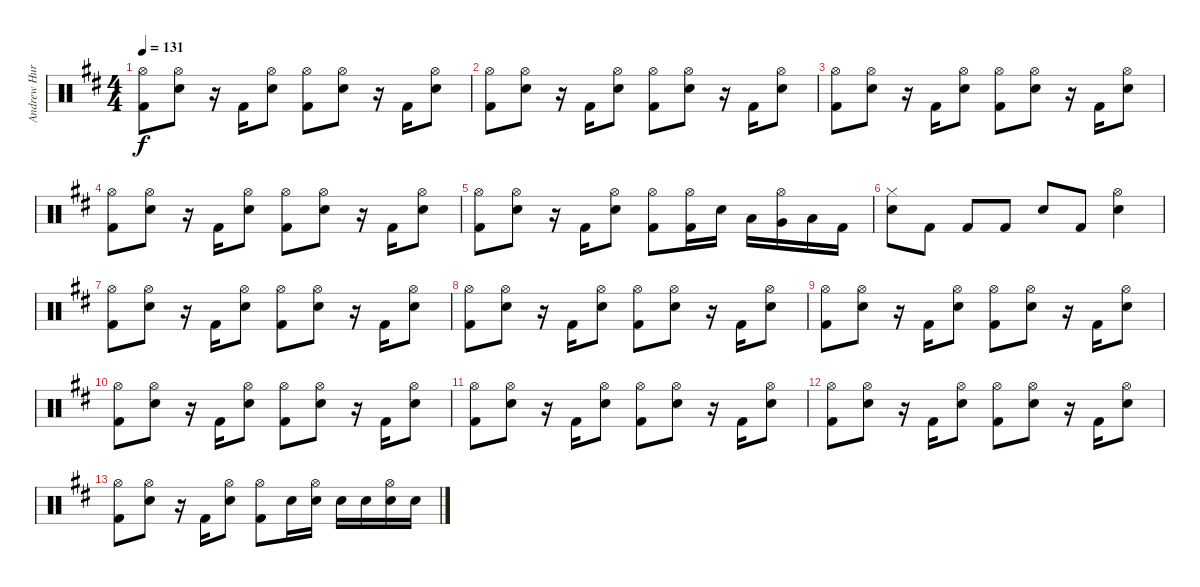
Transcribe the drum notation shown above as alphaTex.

\track ("Andrew Hurley" "Andrew Hur") {instrument percussion}
\staff {score}
\articulation defaults
\ts (4 4)
\tempo 131
\clef neutral
\ks d
("Hi-Hat (open)" "Kick (hit) 2").8{dy f} ("Hi-Hat (open)" "Electric Snare (hit)").8 r.16 "Kick (hit) 2".16 ("Hi-Hat (open)" "Electric Snare (hit)").8 ("Hi-Hat (open)" "Kick (hit) 2").8 ("Hi-Hat (open)" "Electric Snare (hit)").8 r.16 "Kick (hit) 2".16 ("Hi-Hat (open)" "Electric Snare (hit)").8 |
("Hi-Hat (open)" "Kick (hit) 2").8 ("Hi-Hat (open)" "Electric Snare (hit)").8 r.16 "Kick (hit) 2".16 ("Hi-Hat (open)" "Electric Snare (hit)").8 ("Hi-Hat (open)" "Kick (hit) 2").8 ("Hi-Hat (open)" "Electric Snare (hit)").8 r.16 "Kick (hit) 2".16 ("Hi-Hat (open)" "Electric Snare (hit)").8 |
("Hi-Hat (open)" "Kick (hit) 2").8 ("Hi-Hat (open)" "Electric Snare (hit)").8 r.16 "Kick (hit) 2".16 ("Hi-Hat (open)" "Electric Snare (hit)").8 ("Hi-Hat (open)" "Kick (hit) 2").8 ("Hi-Hat (open)" "Electric Snare (hit)").8 r.16 "Kick (hit) 2".16 ("Hi-Hat (open)" "Electric Snare (hit)").8 |
("Hi-Hat (open)" "Kick (hit) 2").8 ("Hi-Hat (open)" "Electric Snare (hit)").8 r.16 "Kick (hit) 2".16 ("Hi-Hat (open)" "Electric Snare (hit)").8 ("Hi-Hat (open)" "Kick (hit) 2").8 ("Hi-Hat (open)" "Electric Snare (hit)").8 r.16 "Kick (hit) 2".16 ("Hi-Hat (open)" "Electric Snare (hit)").8 |
("Hi-Hat (open)" "Kick (hit) 2").8 ("Hi-Hat (open)" "Electric Snare (hit)").8 r.16 "Kick (hit) 2".16 ("Hi-Hat (open)" "Electric Snare (hit)").8 ("Hi-Hat (open)" "Kick (hit) 2").8 ("Hi-Hat (open)" "Kick (hit) 2").16 "Electric Snare (hit)".16 "Low Tom (hit)".16 ("Hi-Hat (open)" "Very Low Tom (hit)").16 "Low Floor Tom (hit)".16 "Kick (hit) 2".16 |
("Hi-Hat (closed)" "Electric Snare (hit)").8 "Kick (hit) 2".8 "Kick (hit) 2".8 "Kick (hit) 2".8 "Electric Snare (hit)".8 "Kick (hit) 2".8 ("Hi-Hat (open)" "Electric Snare (hit)").4 |
("Hi-Hat (open)" "Kick (hit) 2").8 ("Hi-Hat (open)" "Electric Snare (hit)").8 r.16 "Kick (hit) 2".16 ("Hi-Hat (open)" "Electric Snare (hit)").8 ("Hi-Hat (open)" "Kick (hit) 2").8 ("Hi-Hat (open)" "Electric Snare (hit)").8 r.16 "Kick (hit) 2".16 ("Hi-Hat (open)" "Electric Snare (hit)").8 |
("Hi-Hat (open)" "Kick (hit) 2").8 ("Hi-Hat (open)" "Electric Snare (hit)").8 r.16 "Kick (hit) 2".16 ("Hi-Hat (open)" "Electric Snare (hit)").8 ("Hi-Hat (open)" "Kick (hit) 2").8 ("Hi-Hat (open)" "Electric Snare (hit)").8 r.16 "Kick (hit) 2".16 ("Hi-Hat (open)" "Electric Snare (hit)").8 |
("Hi-Hat (open)" "Kick (hit) 2").8 ("Hi-Hat (open)" "Electric Snare (hit)").8 r.16 "Kick (hit) 2".16 ("Hi-Hat (open)" "Electric Snare (hit)").8 ("Hi-Hat (open)" "Kick (hit) 2").8 ("Hi-Hat (open)" "Electric Snare (hit)").8 r.16 "Kick (hit) 2".16 ("Hi-Hat (open)" "Electric Snare (hit)").8 |
("Hi-Hat (open)" "Kick (hit) 2").8 ("Hi-Hat (open)" "Electric Snare (hit)").8 r.16 "Kick (hit) 2".16 ("Hi-Hat (open)" "Electric Snare (hit)").8 ("Hi-Hat (open)" "Kick (hit) 2").8 ("Hi-Hat (open)" "Electric Snare (hit)").8 r.16 "Kick (hit) 2".16 ("Hi-Hat (open)" "Electric Snare (hit)").8 |
("Hi-Hat (open)" "Kick (hit) 2").8 ("Hi-Hat (open)" "Electric Snare (hit)").8 r.16 "Kick (hit) 2".16 ("Hi-Hat (open)" "Electric Snare (hit)").8 ("Hi-Hat (open)" "Kick (hit) 2").8 ("Hi-Hat (open)" "Electric Snare (hit)").8 r.16 "Kick (hit) 2".16 ("Hi-Hat (open)" "Electric Snare (hit)").8 |
("Hi-Hat (open)" "Kick (hit) 2").8 ("Hi-Hat (open)" "Electric Snare (hit)").8 r.16 "Kick (hit) 2".16 ("Hi-Hat (open)" "Electric Snare (hit)").8 ("Hi-Hat (open)" "Kick (hit) 2").8 ("Hi-Hat (open)" "Electric Snare (hit)").8 r.16 "Kick (hit) 2".16 ("Hi-Hat (open)" "Electric Snare (hit)").8 |
("Hi-Hat (open)" "Kick (hit) 2").8 ("Hi-Hat (open)" "Electric Snare (hit)").8 r.16 "Kick (hit) 2".16 ("Hi-Hat (open)" "Electric Snare (hit)").8 ("Hi-Hat (open)" "Kick (hit) 2").8 "Electric Snare (hit)".16 ("Hi-Hat (open)" "Electric Snare (hit)").16 "Electric Snare (hit)".16 "Electric Snare (hit)".16 ("Hi-Hat (open)" "Electric Snare (hit)").16 "Electric Snare (hit)".16
